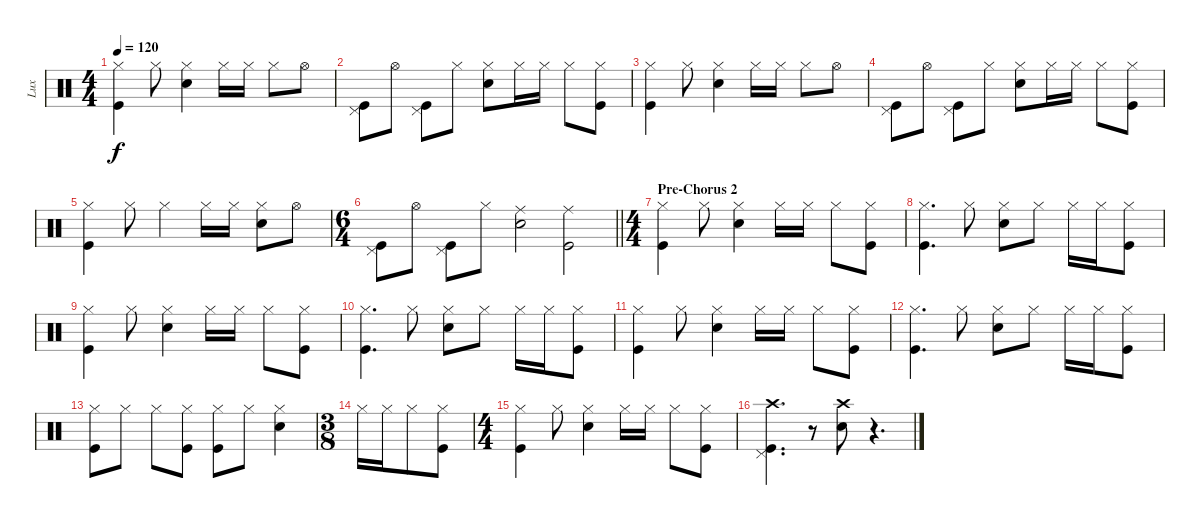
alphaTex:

\track ("Lux" "Lux") {instrument percussion}
\staff {score}
\articulation defaults
\ts (4 4)
\tempo 120
\clef neutral
\ks c
("Hi-Hat (closed)" "Kick (hit)").4{dy f} "Hi-Hat (closed)".8 ("Hi-Hat (closed)" "Snare (hit) 2").4 "Hi-Hat (closed)".16 "Hi-Hat (closed)".16 "Hi-Hat (closed)".8 "Hi-Hat (open)".8 |
("Kick (hit)" "Pedal Hi-Hat (hit)").8 "Hi-Hat (open)".8 ("Kick (hit)" "Pedal Hi-Hat (hit)").8 "Hi-Hat (closed)".8 ("Hi-Hat (closed)" "Snare (hit) 2").8 "Hi-Hat (closed)".16 "Hi-Hat (closed)".16 "Hi-Hat (closed)".8 ("Hi-Hat (closed)" "Kick (hit)").8 |
("Hi-Hat (closed)" "Kick (hit)").4 "Hi-Hat (closed)".8 ("Hi-Hat (closed)" "Snare (hit) 2").4 "Hi-Hat (closed)".16 "Hi-Hat (closed)".16 "Hi-Hat (closed)".8 "Hi-Hat (open)".8 |
("Kick (hit)" "Pedal Hi-Hat (hit)").8 "Hi-Hat (open)".8 ("Kick (hit)" "Pedal Hi-Hat (hit)").8 "Hi-Hat (closed)".8 ("Hi-Hat (closed)" "Snare (hit) 2").8 "Hi-Hat (closed)".16 "Hi-Hat (closed)".16 "Hi-Hat (closed)".8 ("Hi-Hat (closed)" "Kick (hit)").8 |
("Hi-Hat (closed)" "Kick (hit)").4 "Hi-Hat (closed)".8 "Hi-Hat (closed)".4 "Hi-Hat (closed)".16 "Hi-Hat (closed)".16 ("Hi-Hat (closed)" "Snare (hit) 2").8 "Hi-Hat (open)".8 |
\ts (6 4)
\barLineRight lightlight
("Kick (hit)" "Pedal Hi-Hat (hit)").8 "Hi-Hat (open)".8 ("Kick (hit)" "Pedal Hi-Hat (hit)").8 "Hi-Hat (closed)".8 ("Ride (middle)" "Snare (hit) 2").2 ("Ride (middle)" "Kick (hit)").2 |
\ts (4 4)
\section ("" "Pre-Chorus 2")
("Hi-Hat (closed)" "Kick (hit)").4 "Hi-Hat (closed)".8 ("Hi-Hat (closed)" "Snare (hit) 2").4 "Hi-Hat (closed)".16 "Hi-Hat (closed)".16 "Hi-Hat (closed)".8 ("Hi-Hat (closed)" "Kick (hit)").8 |
("Hi-Hat (closed)" "Kick (hit)").4{d} "Hi-Hat (closed)".8 ("Hi-Hat (closed)" "Snare (hit) 2").8 "Hi-Hat (closed)".8 "Hi-Hat (closed)".16 "Hi-Hat (closed)".16 ("Hi-Hat (closed)" "Kick (hit)").8 |
("Hi-Hat (closed)" "Kick (hit)").4 "Hi-Hat (closed)".8 ("Hi-Hat (closed)" "Snare (hit) 2").4 "Hi-Hat (closed)".16 "Hi-Hat (closed)".16 "Hi-Hat (closed)".8 ("Hi-Hat (closed)" "Kick (hit)").8 |
("Hi-Hat (closed)" "Kick (hit)").4{d} "Hi-Hat (closed)".8 ("Hi-Hat (closed)" "Snare (hit) 2").8 "Hi-Hat (closed)".8 "Hi-Hat (closed)".16 "Hi-Hat (closed)".16 ("Hi-Hat (closed)" "Kick (hit)").8 |
("Hi-Hat (closed)" "Kick (hit)").4 "Hi-Hat (closed)".8 ("Hi-Hat (closed)" "Snare (hit) 2").4 "Hi-Hat (closed)".16 "Hi-Hat (closed)".16 "Hi-Hat (closed)".8 ("Hi-Hat (closed)" "Kick (hit)").8 |
("Hi-Hat (closed)" "Kick (hit)").4{d} "Hi-Hat (closed)".8 ("Hi-Hat (closed)" "Snare (hit) 2").8 "Hi-Hat (closed)".8 "Hi-Hat (closed)".16 "Hi-Hat (closed)".16 ("Hi-Hat (closed)" "Kick (hit)").8 |
("Hi-Hat (closed)" "Kick (hit)").8 "Hi-Hat (closed)".8 "Hi-Hat (closed)".8 ("Hi-Hat (closed)" "Kick (hit)").8 ("Hi-Hat (closed)" "Kick (hit)").8 "Hi-Hat (closed)".8 ("Hi-Hat (closed)" "Snare (hit) 2").4 |
\ts (3 8)
"Hi-Hat (closed)".16 "Hi-Hat (closed)".16 "Hi-Hat (closed)".8 ("Hi-Hat (closed)" "Kick (hit)").8 |
\ts (4 4)
("Hi-Hat (closed)" "Kick (hit)").4 "Hi-Hat (closed)".8 ("Hi-Hat (closed)" "Snare (hit) 2").4 "Hi-Hat (closed)".16 "Hi-Hat (closed)".16 "Hi-Hat (closed)".8 ("Hi-Hat (closed)" "Kick (hit)").8 |
("Crash high (hit)" "Kick (hit)" "Pedal Hi-Hat (hit)").4{d} r.8 ("Crash high (hit)" "Snare (hit) 2").8 r.4{d}
